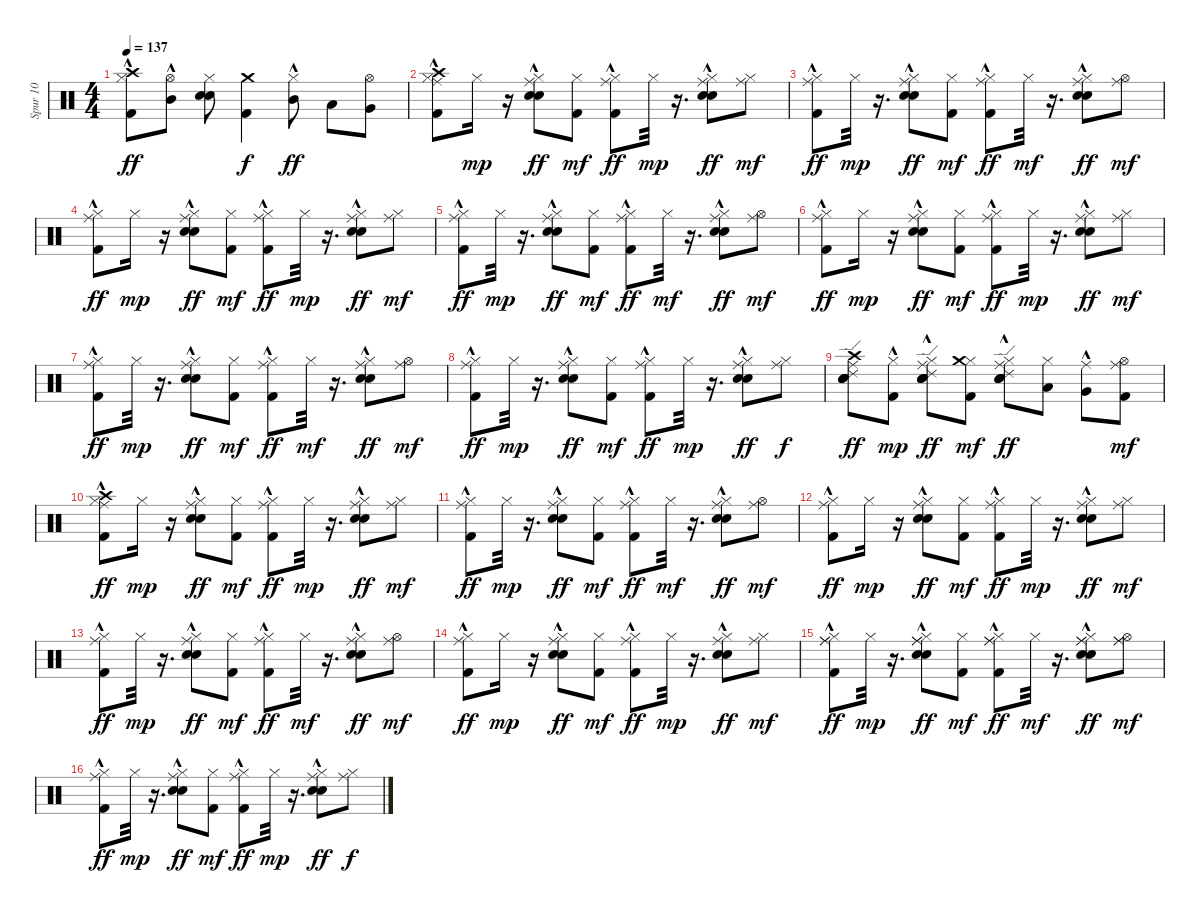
\track ("Spur 10" "Spur 10") {instrument percussion}
\staff {score}
\articulation defaults
\ts (4 4)
\tempo 137
\clef neutral
\ks c
("Kick (hit) 2"{hac} "Crash high (hit)" "Hi-Hat (closed)").8{dy ff} ("Hi-Hat (open)" "Mid Tom (hit)"{hac}).8 ("Electric Snare (hit)" "Snare (hit) 2" "Hi-Hat (closed)").8 ("Kick (hit) 2" "Crash medium (hit)").4{dy f} ("Hi-Hat (closed)" "Mid Tom (hit)"{hac}).8{dy ff} "Low Tom (hit)".8 ("Hi-Hat (open)" "Very Low Tom (hit)").8 |
("Kick (hit) 2"{hac} "Hi-Hat (closed)" "Crash high (hit)" "Ride (middle)").8 "Hi-Hat (closed)".16{dy mp} r.16 ("Electric Snare (hit)"{hac} "Snare (hit) 2"{hac} "Hi-Hat (closed)" "Ride (middle)"{hac}).8{dy ff} ("Kick (hit) 2" "Hi-Hat (closed)").8{dy mf} ("Kick (hit) 2" "Hi-Hat (closed)" "Ride (middle)"{hac}).8{dy ff} "Hi-Hat (closed)".32{dy mp} r.16{d} ("Electric Snare (hit)"{hac} "Snare (hit) 2"{hac} "Hi-Hat (closed)" "Ride (middle)"{hac}).8{dy ff} ("Hi-Hat (closed)" "Ride (middle)").8{dy mf} |
("Kick (hit) 2"{hac} "Ride (middle)" "Hi-Hat (closed)").8{dy ff} "Hi-Hat (closed)".32{dy mp} r.16{d} ("Electric Snare (hit)"{hac} "Snare (hit) 2"{hac} "Hi-Hat (closed)" "Ride (middle)"{hac}).8{dy ff} ("Kick (hit) 2" "Hi-Hat (closed)").8{dy mf} ("Kick (hit) 2" "Hi-Hat (closed)" "Ride (middle)"{hac}).8{dy ff} "Hi-Hat (closed)".32{dy mf} r.16{d} ("Electric Snare (hit)"{hac} "Snare (hit) 2"{hac} "Hi-Hat (closed)" "Ride (middle)"{hac}).8{dy ff} ("Hi-Hat (open)" "Ride (middle)").8{dy mf} |
("Kick (hit) 2"{hac} "Hi-Hat (closed)" "Ride (middle)").8{dy ff} "Hi-Hat (closed)".16{dy mp} r.16 ("Electric Snare (hit)"{hac} "Snare (hit) 2"{hac} "Hi-Hat (closed)" "Ride (middle)"{hac}).8{dy ff} ("Kick (hit) 2" "Hi-Hat (closed)").8{dy mf} ("Kick (hit) 2" "Hi-Hat (closed)" "Ride (middle)"{hac}).8{dy ff} "Hi-Hat (closed)".32{dy mp} r.16{d} ("Electric Snare (hit)"{hac} "Snare (hit) 2"{hac} "Hi-Hat (closed)" "Ride (middle)"{hac}).8{dy ff} ("Hi-Hat (closed)" "Ride (middle)").8{dy mf} |
("Kick (hit) 2"{hac} "Ride (middle)" "Hi-Hat (closed)").8{dy ff} "Hi-Hat (closed)".32{dy mp} r.16{d} ("Electric Snare (hit)"{hac} "Snare (hit) 2"{hac} "Hi-Hat (closed)" "Ride (middle)"{hac}).8{dy ff} ("Kick (hit) 2" "Hi-Hat (closed)").8{dy mf} ("Kick (hit) 2" "Hi-Hat (closed)" "Ride (middle)"{hac}).8{dy ff} "Hi-Hat (closed)".32{dy mf} r.16{d} ("Electric Snare (hit)"{hac} "Snare (hit) 2"{hac} "Hi-Hat (closed)" "Ride (middle)"{hac}).8{dy ff} ("Hi-Hat (open)" "Ride (middle)").8{dy mf} |
("Kick (hit) 2"{hac} "Hi-Hat (closed)" "Ride (middle)").8{dy ff} "Hi-Hat (closed)".16{dy mp} r.16 ("Electric Snare (hit)"{hac} "Snare (hit) 2"{hac} "Hi-Hat (closed)" "Ride (middle)"{hac}).8{dy ff} ("Kick (hit) 2" "Hi-Hat (closed)").8{dy mf} ("Kick (hit) 2" "Hi-Hat (closed)" "Ride (middle)"{hac}).8{dy ff} "Hi-Hat (closed)".32{dy mp} r.16{d} ("Electric Snare (hit)"{hac} "Snare (hit) 2"{hac} "Hi-Hat (closed)" "Ride (middle)"{hac}).8{dy ff} ("Hi-Hat (closed)" "Ride (middle)").8{dy mf} |
("Kick (hit) 2"{hac} "Ride (middle)" "Hi-Hat (closed)").8{dy ff} "Hi-Hat (closed)".32{dy mp} r.16{d} ("Electric Snare (hit)"{hac} "Snare (hit) 2"{hac} "Hi-Hat (closed)" "Ride (middle)"{hac}).8{dy ff} ("Kick (hit) 2" "Hi-Hat (closed)").8{dy mf} ("Kick (hit) 2" "Hi-Hat (closed)" "Ride (middle)"{hac}).8{dy ff} "Hi-Hat (closed)".32{dy mf} r.16{d} ("Electric Snare (hit)"{hac} "Snare (hit) 2"{hac} "Hi-Hat (closed)" "Ride (middle)"{hac}).8{dy ff} ("Hi-Hat (open)" "Ride (middle)").8{dy mf} |
("Kick (hit) 2"{hac} "Hi-Hat (closed)" "Ride (middle)").8{dy ff} "Hi-Hat (closed)".32{dy mp} r.16{d} ("Electric Snare (hit)"{hac} "Snare (hit) 2"{hac} "Hi-Hat (closed)" "Ride (middle)"{hac}).8{dy ff} ("Kick (hit) 2" "Hi-Hat (closed)").8{dy mf} ("Kick (hit) 2" "Hi-Hat (closed)" "Ride (middle)"{hac}).8{dy ff} "Hi-Hat (closed)".32{dy mp} r.16{d} ("Electric Snare (hit)" "Snare (hit) 2" "Hi-Hat (closed)" "Ride (middle)"{hac}).8{dy ff} ("Hi-Hat (closed)" "Ride (middle)").8{dy f} |
("Snare (hit)" "Electric Snare (hit)" "Ride (edge) 2" "Snare (hit) 2" "Ride (middle)" "Crash high (hit)").8{dy ff} ("Kick (hit) 2"{hac} "Hi-Hat (closed)").8{dy mp} ("Electric Snare (hit)" "Snare (hit)" "Snare (hit) 2" "Ride (edge) 2" "Hi-Hat (closed)" "Ride (middle)"{hac}).8{dy ff} ("Kick (hit) 2" "Hi-Hat (closed)" "Crash medium (hit)").8{dy mf} ("Electric Snare (hit)" "Snare (hit)" "Snare (hit) 2" "Ride (edge) 2" "Hi-Hat (closed)" "Ride (middle)"{hac}).8{dy ff} ("Hi-Hat (closed)" "Low Tom (hit)").8 ("Very Low Tom (hit)" "Ride (middle)"{hac}).8 ("Kick (hit) 2" "Hi-Hat (open)" "Ride (middle)").8{dy mf} |
("Kick (hit) 2"{hac} "Hi-Hat (closed)" "Crash high (hit)" "Ride (middle)").8{dy ff} "Hi-Hat (closed)".16{dy mp} r.16 ("Electric Snare (hit)"{hac} "Snare (hit) 2"{hac} "Hi-Hat (closed)" "Ride (middle)"{hac}).8{dy ff} ("Kick (hit) 2" "Hi-Hat (closed)").8{dy mf} ("Kick (hit) 2" "Hi-Hat (closed)" "Ride (middle)"{hac}).8{dy ff} "Hi-Hat (closed)".32{dy mp} r.16{d} ("Electric Snare (hit)"{hac} "Snare (hit) 2"{hac} "Hi-Hat (closed)" "Ride (middle)"{hac}).8{dy ff} ("Hi-Hat (closed)" "Ride (middle)").8{dy mf} |
("Kick (hit) 2"{hac} "Ride (middle)" "Hi-Hat (closed)").8{dy ff} "Hi-Hat (closed)".32{dy mp} r.16{d} ("Electric Snare (hit)"{hac} "Snare (hit) 2"{hac} "Hi-Hat (closed)" "Ride (middle)"{hac}).8{dy ff} ("Kick (hit) 2" "Hi-Hat (closed)").8{dy mf} ("Kick (hit) 2" "Hi-Hat (closed)" "Ride (middle)"{hac}).8{dy ff} "Hi-Hat (closed)".32{dy mf} r.16{d} ("Electric Snare (hit)"{hac} "Snare (hit) 2"{hac} "Hi-Hat (closed)" "Ride (middle)"{hac}).8{dy ff} ("Hi-Hat (open)" "Ride (middle)").8{dy mf} |
("Kick (hit) 2"{hac} "Hi-Hat (closed)" "Ride (middle)").8{dy ff} "Hi-Hat (closed)".16{dy mp} r.16 ("Electric Snare (hit)"{hac} "Snare (hit) 2"{hac} "Hi-Hat (closed)" "Ride (middle)"{hac}).8{dy ff} ("Kick (hit) 2" "Hi-Hat (closed)").8{dy mf} ("Kick (hit) 2" "Hi-Hat (closed)" "Ride (middle)"{hac}).8{dy ff} "Hi-Hat (closed)".32{dy mp} r.16{d} ("Electric Snare (hit)"{hac} "Snare (hit) 2"{hac} "Hi-Hat (closed)" "Ride (middle)"{hac}).8{dy ff} ("Hi-Hat (closed)" "Ride (middle)").8{dy mf} |
("Kick (hit) 2"{hac} "Ride (middle)" "Hi-Hat (closed)").8{dy ff} "Hi-Hat (closed)".32{dy mp} r.16{d} ("Electric Snare (hit)"{hac} "Snare (hit) 2"{hac} "Hi-Hat (closed)" "Ride (middle)"{hac}).8{dy ff} ("Kick (hit) 2" "Hi-Hat (closed)").8{dy mf} ("Kick (hit) 2" "Hi-Hat (closed)" "Ride (middle)"{hac}).8{dy ff} "Hi-Hat (closed)".32{dy mf} r.16{d} ("Electric Snare (hit)"{hac} "Snare (hit) 2"{hac} "Hi-Hat (closed)" "Ride (middle)"{hac}).8{dy ff} ("Hi-Hat (open)" "Ride (middle)").8{dy mf} |
("Kick (hit) 2"{hac} "Hi-Hat (closed)" "Ride (middle)").8{dy ff} "Hi-Hat (closed)".16{dy mp} r.16 ("Electric Snare (hit)"{hac} "Snare (hit) 2"{hac} "Hi-Hat (closed)" "Ride (middle)"{hac}).8{dy ff} ("Kick (hit) 2" "Hi-Hat (closed)").8{dy mf} ("Kick (hit) 2" "Hi-Hat (closed)" "Ride (middle)"{hac}).8{dy ff} "Hi-Hat (closed)".32{dy mp} r.16{d} ("Electric Snare (hit)"{hac} "Snare (hit) 2"{hac} "Hi-Hat (closed)" "Ride (middle)"{hac}).8{dy ff} ("Hi-Hat (closed)" "Ride (middle)").8{dy mf} |
("Kick (hit) 2"{hac} "Hi-Hat (closed)" "Ride (middle)" "Ride (middle)").8{dy ff} "Hi-Hat (closed)".32{dy mp} r.16{d} ("Electric Snare (hit)"{hac} "Snare (hit) 2"{hac} "Hi-Hat (closed)" "Ride (middle)"{hac} "Ride (middle)"{hac}).8{dy ff} ("Kick (hit) 2" "Hi-Hat (closed)").8{dy mf} ("Kick (hit) 2" "Hi-Hat (closed)" "Ride (middle)"{hac} "Ride (middle)"{hac}).8{dy ff} "Hi-Hat (closed)".32{dy mf} r.16{d} ("Electric Snare (hit)"{hac} "Snare (hit) 2"{hac} "Hi-Hat (closed)" "Ride (middle)"{hac} "Ride (middle)"{hac}).8{dy ff} ("Hi-Hat (open)" "Ride (middle)" "Ride (middle)").8{dy mf} |
("Kick (hit) 2"{hac} "Ride (middle)" "Hi-Hat (closed)").8{dy ff} "Hi-Hat (closed)".32{dy mp} r.16{d} ("Ride (middle)"{hac} "Electric Snare (hit)"{hac} "Snare (hit) 2"{hac} "Hi-Hat (closed)").8{dy ff} ("Kick (hit) 2" "Hi-Hat (closed)").8{dy mf} ("Kick (hit) 2" "Ride (middle)"{hac} "Hi-Hat (closed)").8{dy ff} "Hi-Hat (closed)".32{dy mp} r.16{d} ("Ride (middle)"{hac} "Electric Snare (hit)" "Snare (hit) 2" "Hi-Hat (closed)").8{dy ff} ("Ride (middle)" "Hi-Hat (closed)").8{dy f}
